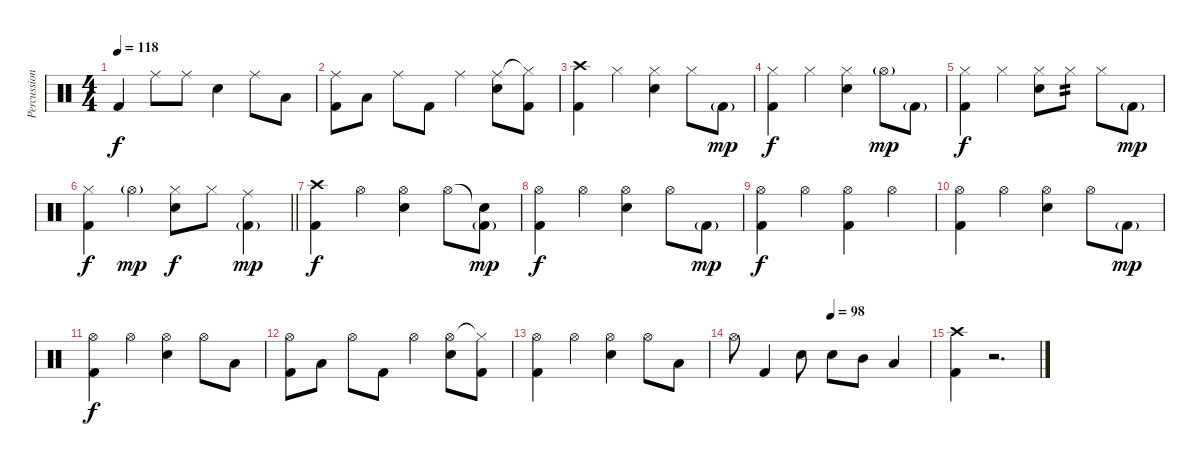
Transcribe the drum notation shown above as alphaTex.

\track ("Percussion" "Percussion") {instrument percussion}
\staff {score}
\articulation defaults
\ts (4 4)
\tempo 118
\clef neutral
\ks c "Kick (hit) 2".4{dy f} "Ride (middle)".8 "Ride (middle)".8 "Electric Snare (hit)".4 "Ride (middle)".8 "Low Floor Tom (hit)".8
|
("Ride (middle)" "Kick (hit) 2").8 "Low Floor Tom (hit)".8 "Ride (middle)".8 "Kick (hit) 2".8 "Ride (middle)".4 ("Ride (middle)" "Electric Snare (hit)").8 ("Hi-Hat (closed)"{t} "Kick (hit) 2").8 |
("Crash high (hit)" "Kick (hit) 2").4 "Hi-Hat (closed)".4 ("Hi-Hat (closed)" "Electric Snare (hit)").4 "Hi-Hat (closed)".8 "Kick (hit) 2"{g}.8{dy mp} |
("Hi-Hat (closed)" "Kick (hit) 2").4{dy f} "Hi-Hat (closed)".4 ("Hi-Hat (closed)" "Electric Snare (hit)").4 "Hi-Hat (open)"{g}.8{dy mp} "Kick (hit) 2"{g}.8 |
("Hi-Hat (closed)" "Kick (hit) 2").4{dy f} "Hi-Hat (closed)".4 ("Hi-Hat (closed)" "Electric Snare (hit)").8 "Hi-Hat (closed)".8{tp 2} "Hi-Hat (closed)".8 "Kick (hit) 2"{g}.8{dy mp} |
\barLineRight lightlight
("Hi-Hat (closed)" "Kick (hit) 2").4{dy f} "Hi-Hat (open)"{g}.4{dy mp} ("Hi-Hat (closed)" "Electric Snare (hit)").8{dy f} "Hi-Hat (closed)".8 ("Ride (middle)" "Kick (hit) 2"{g}).4{dy mp} |
("Crash high (hit)" "Kick (hit) 2").4{dy f} "Hi-Hat (open)".4 ("Hi-Hat (open)" "Electric Snare (hit)").4 "Hi-Hat (open)".8 ("Snare (hit)"{t} "Kick (hit) 2"{g}).8{dy mp} |
("Hi-Hat (open)" "Kick (hit) 2").4{dy f} "Hi-Hat (open)".4 ("Hi-Hat (open)" "Electric Snare (hit)").4 "Hi-Hat (open)".8 "Kick (hit) 2"{g}.8{dy mp} |
("Hi-Hat (open)" "Kick (hit) 2").4{dy f} "Hi-Hat (open)".4 ("Hi-Hat (open)" "Kick (hit) 2").4 "Hi-Hat (open)".4 |
("Hi-Hat (open)" "Kick (hit) 2").4 "Hi-Hat (open)".4 ("Hi-Hat (open)" "Electric Snare (hit)").4 "Hi-Hat (open)".8 "Kick (hit) 2"{g}.8{dy mp} |
("Hi-Hat (open)" "Kick (hit) 2").4{dy f} "Hi-Hat (open)".4 ("Hi-Hat (open)" "Electric Snare (hit)").4 "Hi-Hat (open)".8 "Low Floor Tom (hit)".8 |
("Hi-Hat (open)" "Kick (hit) 2").8 "Low Floor Tom (hit)".8 "Hi-Hat (open)".8 "Kick (hit) 2".8 "Hi-Hat (open)".4 ("Hi-Hat (open)" "Electric Snare (hit)").8 ("Hi-Hat (closed)"{t} "Kick (hit) 2").8 |
("Hi-Hat (open)" "Kick (hit) 2").4 "Hi-Hat (open)".4 ("Hi-Hat (open)" "Electric Snare (hit)").4 "Hi-Hat (open)".8 "Low Floor Tom (hit)".8 |
\tempo (98 0.5)
"Hi-Hat (open)".8 "Kick (hit) 2".4 "Electric Snare (hit)".8 "Electric Snare (hit)".8 "Mid Tom (hit)".8 "Low Tom (hit)".4 |
("Crash high (hit)" "Kick (hit) 2").4 r.2{d}
